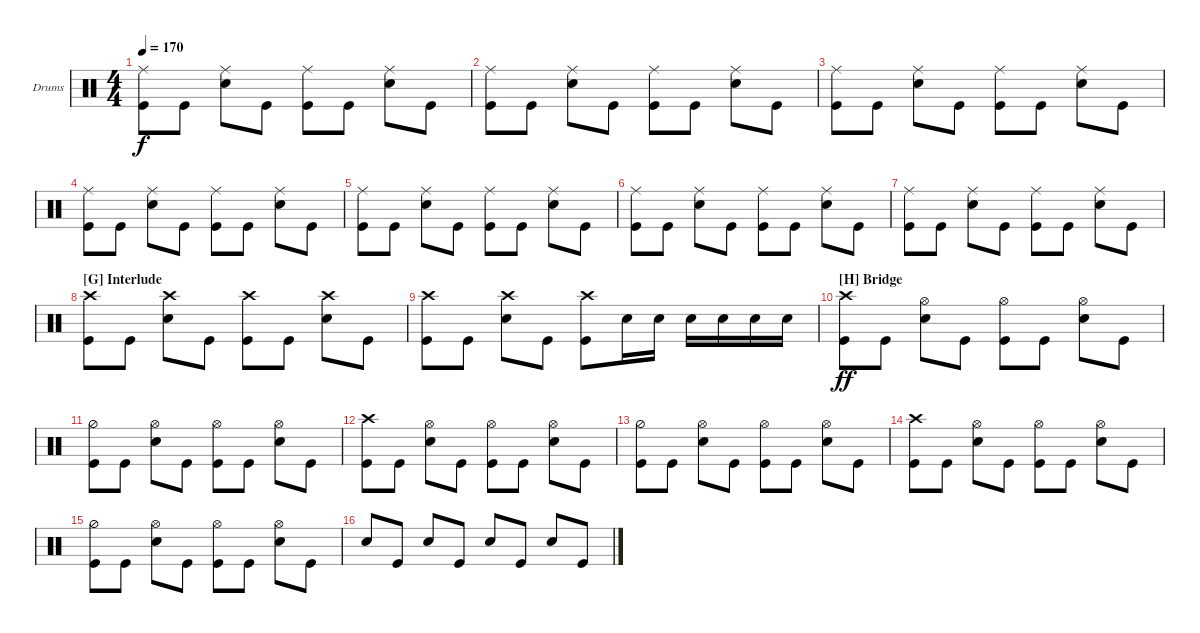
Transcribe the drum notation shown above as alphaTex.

\defaultSystemsLayout 4
\bracketExtendMode groupsimilarinstruments
\firstSystemTrackNameOrientation horizontal
\otherSystemsTrackNameOrientation horizontal
\track ("Benny Horowitz" "Drums") {instrument percussion}
\staff {score}
\articulation defaults
\ts (4 4)
\tempo 170
\clef neutral
\ks c
("Kick (hit)" "Ride (middle)").8{dy f} "Kick (hit)".8 ("Snare (hit) 2" "Ride (middle)").8 "Kick (hit)".8 ("Kick (hit)" "Ride (middle)").8 "Kick (hit)".8 ("Snare (hit) 2" "Ride (middle)").8 "Kick (hit)".8 |
("Kick (hit)" "Ride (middle)").8 "Kick (hit)".8 ("Snare (hit) 2" "Ride (middle)").8 "Kick (hit)".8 ("Kick (hit)" "Ride (middle)").8 "Kick (hit)".8 ("Snare (hit) 2" "Ride (middle)").8 "Kick (hit)".8 |
("Kick (hit)" "Ride (middle)").8 "Kick (hit)".8 ("Snare (hit) 2" "Ride (middle)").8 "Kick (hit)".8 ("Kick (hit)" "Ride (middle)").8 "Kick (hit)".8 ("Snare (hit) 2" "Ride (middle)").8 "Kick (hit)".8 |
("Kick (hit)" "Ride (middle)").8 "Kick (hit)".8 ("Snare (hit) 2" "Ride (middle)").8 "Kick (hit)".8 ("Kick (hit)" "Ride (middle)").8 "Kick (hit)".8 ("Snare (hit) 2" "Ride (middle)").8 "Kick (hit)".8 |
("Kick (hit)" "Ride (middle)").8 "Kick (hit)".8 ("Snare (hit) 2" "Ride (middle)").8 "Kick (hit)".8 ("Kick (hit)" "Ride (middle)").8 "Kick (hit)".8 ("Snare (hit) 2" "Ride (middle)").8 "Kick (hit)".8 |
("Kick (hit)" "Ride (middle)").8 "Kick (hit)".8 ("Snare (hit) 2" "Ride (middle)").8 "Kick (hit)".8 ("Kick (hit)" "Ride (middle)").8 "Kick (hit)".8 ("Snare (hit) 2" "Ride (middle)").8 "Kick (hit)".8 |
("Kick (hit)" "Ride (middle)").8 "Kick (hit)".8 ("Snare (hit) 2" "Ride (middle)").8 "Kick (hit)".8 ("Kick (hit)" "Ride (middle)").8 "Kick (hit)".8 ("Snare (hit) 2" "Ride (middle)").8 "Kick (hit)".8 |
\section ("G" "Interlude")
("Kick (hit)" "Crash high (hit)").8 "Kick (hit)".8 ("Snare (hit) 2" "Crash high (hit)").8 "Kick (hit)".8 ("Kick (hit)" "Crash high (hit)").8 "Kick (hit)".8 ("Snare (hit) 2" "Crash high (hit)").8 "Kick (hit)".8 |
("Kick (hit)" "Crash high (hit)").8 "Kick (hit)".8 ("Snare (hit) 2" "Crash high (hit)").8 "Kick (hit)".8 ("Kick (hit)" "Crash high (hit)").8 "Snare (hit) 2".16 "Snare (hit) 2".16 "Snare (hit) 2".16 "Snare (hit) 2".16 "Snare (hit) 2".16 "Snare (hit) 2".16 |
\section ("H" "Bridge")
("Crash high (hit)" "Kick (hit)").8{dy ff} "Kick (hit)".8 ("Snare (hit) 2" "Hi-Hat (open)").8 "Kick (hit)".8 ("Kick (hit)" "Hi-Hat (open)").8 "Kick (hit)".8 ("Snare (hit) 2" "Hi-Hat (open)").8 "Kick (hit)".8 |
("Kick (hit)" "Hi-Hat (half)").8 "Kick (hit)".8 ("Snare (hit) 2" "Hi-Hat (open)").8 "Kick (hit)".8 ("Kick (hit)" "Hi-Hat (open)").8 "Kick (hit)".8 ("Snare (hit) 2" "Hi-Hat (open)").8 "Kick (hit)".8 |
("Crash high (hit)" "Kick (hit)").8 "Kick (hit)".8 ("Snare (hit) 2" "Hi-Hat (open)").8 "Kick (hit)".8 ("Kick (hit)" "Hi-Hat (open)").8 "Kick (hit)".8 ("Snare (hit) 2" "Hi-Hat (open)").8 "Kick (hit)".8 |
("Kick (hit)" "Hi-Hat (half)").8 "Kick (hit)".8 ("Snare (hit) 2" "Hi-Hat (open)").8 "Kick (hit)".8 ("Kick (hit)" "Hi-Hat (open)").8 "Kick (hit)".8 ("Snare (hit) 2" "Hi-Hat (open)").8 "Kick (hit)".8 |
("Crash high (hit)" "Kick (hit)").8 "Kick (hit)".8 ("Snare (hit) 2" "Hi-Hat (open)").8 "Kick (hit)".8 ("Kick (hit)" "Hi-Hat (open)").8 "Kick (hit)".8 ("Snare (hit) 2" "Hi-Hat (open)").8 "Kick (hit)".8 |
("Kick (hit)" "Hi-Hat (half)").8 "Kick (hit)".8 ("Snare (hit) 2" "Hi-Hat (open)").8 "Kick (hit)".8 ("Kick (hit)" "Hi-Hat (open)").8 "Kick (hit)".8 ("Snare (hit) 2" "Hi-Hat (open)").8 "Kick (hit)".8 |
"Snare (hit) 2".8 "Kick (hit)".8 "Snare (hit) 2".8 "Kick (hit)".8 "Snare (hit) 2".8 "Kick (hit)".8 "Snare (hit) 2".8 "Kick (hit)".8
